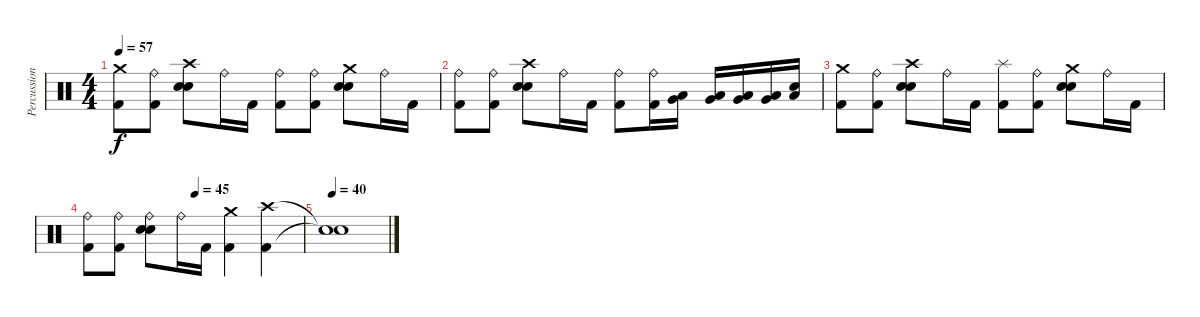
\track ("Percussion" "Percussion") {instrument percussion}
\staff {score}
\articulation defaults
\ts (4 4)
\tempo 57
\clef neutral
\ks c
("Crash medium (hit)" "Kick (hit) 2").8{dy f} ("Ride (bell)" "Kick (hit) 2").8 ("Crash high (hit)" "Electric Snare (hit)" "Metronome (bell)").8 "Ride (bell)".16 "Kick (hit) 2".16 ("Ride (bell)" "Kick (hit) 2").8 ("Ride (bell)" "Kick (hit) 2").8 ("Crash medium (hit)" "Electric Snare (hit)" "Metronome (bell)").8 "Ride (bell)".16 "Kick (hit) 2".16 |
("Ride (bell)" "Kick (hit) 2").8 ("Ride (bell)" "Kick (hit) 2").8 ("Crash high (hit)" "Electric Snare (hit)" "Metronome (bell)").8 "Ride (bell)".16 "Kick (hit) 2".16 ("Ride (bell)" "Kick (hit) 2").8 ("Ride (bell)" "Kick (hit) 2").16 ("Very Low Tom (hit)" "Low Floor Tom (hit)").16 ("Low Tom (hit)" "Very Low Tom (hit)").16 ("Low Tom (hit)" "Very Low Tom (hit)").16 ("Very Low Tom (hit)" "Low Floor Tom (hit)").16 ("Low Floor Tom (hit)" "Snare (hit)").16 |
("Crash medium (hit)" "Kick (hit) 2").8 ("Ride (bell)" "Kick (hit) 2").8 ("Crash high (hit)" "Electric Snare (hit)" "Metronome (bell)").8 "Ride (bell)".16 "Kick (hit) 2".16 ("Splash (hit)" "Kick (hit) 2").8 ("Ride (bell)" "Kick (hit) 2").8 ("Crash medium (hit)" "Electric Snare (hit)" "Metronome (bell)").8 "Ride (bell)".16 "Kick (hit) 2".16 |
\tempo (45 0.5)
("Ride (bell)" "Kick (hit) 2").8 ("Ride (bell)" "Kick (hit) 2").8 ("Ride (bell)" "Electric Snare (hit)" "Metronome (bell)").8 "Ride (bell)".16 "Kick (hit) 2".16 ("Crash medium (hit)" "Kick (hit) 2").4 ("Crash high (hit)" "Kick (hit) 2").4 |
\tempo 40
("Snare (hit)"{t} "Snare (hit)"{t}).1
